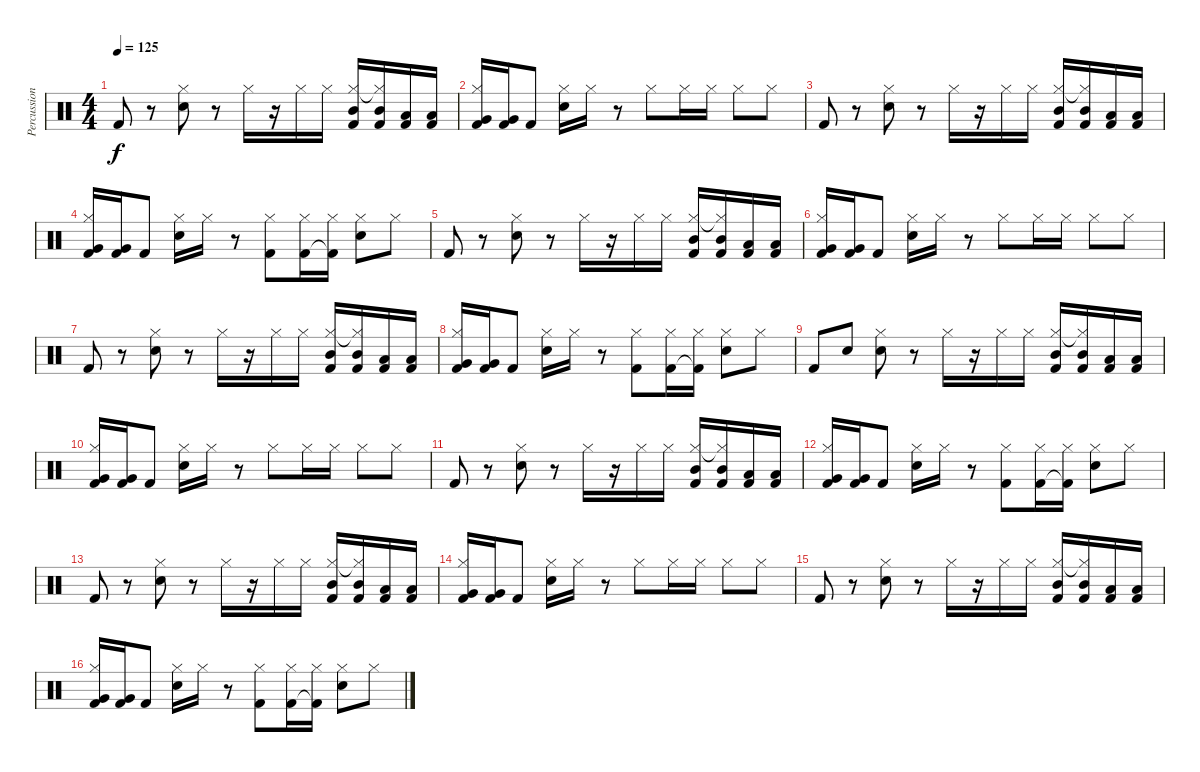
\track ("Percussion" "Percussion") {instrument percussion}
\staff {score}
\articulation defaults
\ts (4 4)
\tempo 125
\clef neutral
\ks c "Kick (hit) 2".8{dy f}
r.8 ("Hi-Hat (closed)" "Electric Snare (hit)").8 r.8 "Hi-Hat (closed)".16 r.16 "Hi-Hat (closed)".16 "Hi-Hat (closed)".16 ("Hi-Hat (closed)" "Mid Tom (hit)" "Kick (hit) 2").16 ("Hi-Hat (closed)"{t} "Mid Tom (hit)" "Kick (hit) 2").16 ("Low Tom (hit)" "Kick (hit) 2").16 ("Low Tom (hit)" "Kick (hit) 2").16 |
("Hi-Hat (closed)" "Very Low Tom (hit)" "Kick (hit) 2").16 ("Very Low Tom (hit)" "Kick (hit) 2").16 "Kick (hit) 2".8 ("Hi-Hat (closed)" "Electric Snare (hit)").16 "Hi-Hat (closed)".16 r.8 "Hi-Hat (closed)".8 "Hi-Hat (closed)".16 "Hi-Hat (closed)".16 "Hi-Hat (closed)".8 "Hi-Hat (closed)".8 |
"Kick (hit) 2".8 r.8 ("Hi-Hat (closed)" "Electric Snare (hit)").8 r.8 "Hi-Hat (closed)".16 r.16 "Hi-Hat (closed)".16 "Hi-Hat (closed)".16 ("Hi-Hat (closed)" "Mid Tom (hit)" "Kick (hit) 2").16 ("Hi-Hat (closed)"{t} "Mid Tom (hit)" "Kick (hit) 2").16 ("Low Tom (hit)" "Kick (hit) 2").16 ("Low Tom (hit)" "Kick (hit) 2").16 |
("Hi-Hat (closed)" "Very Low Tom (hit)" "Kick (hit) 2").16 ("Very Low Tom (hit)" "Kick (hit) 2").16 "Kick (hit) 2".8 ("Hi-Hat (closed)" "Electric Snare (hit)").16 "Hi-Hat (closed)".16 r.8 ("Hi-Hat (closed)" "Kick (hit) 2").8 ("Hi-Hat (closed)" "Kick (hit) 2").16 ("Hi-Hat (closed)" "Kick (hit) 2"{t}).16 ("Hi-Hat (closed)" "Electric Snare (hit)").8 "Hi-Hat (closed)".8 |
"Kick (hit) 2".8 r.8 ("Hi-Hat (closed)" "Electric Snare (hit)").8 r.8 "Hi-Hat (closed)".16 r.16 "Hi-Hat (closed)".16 "Hi-Hat (closed)".16 ("Hi-Hat (closed)" "Mid Tom (hit)" "Kick (hit) 2").16 ("Hi-Hat (closed)"{t} "Mid Tom (hit)" "Kick (hit) 2").16 ("Low Tom (hit)" "Kick (hit) 2").16 ("Low Tom (hit)" "Kick (hit) 2").16 |
("Hi-Hat (closed)" "Very Low Tom (hit)" "Kick (hit) 2").16 ("Very Low Tom (hit)" "Kick (hit) 2").16 "Kick (hit) 2".8 ("Hi-Hat (closed)" "Electric Snare (hit)").16 "Hi-Hat (closed)".16 r.8 "Hi-Hat (closed)".8 "Hi-Hat (closed)".16 "Hi-Hat (closed)".16 "Hi-Hat (closed)".8 "Hi-Hat (closed)".8 |
"Kick (hit) 2".8 r.8 ("Hi-Hat (closed)" "Electric Snare (hit)").8 r.8 "Hi-Hat (closed)".16 r.16 "Hi-Hat (closed)".16 "Hi-Hat (closed)".16 ("Hi-Hat (closed)" "Mid Tom (hit)" "Kick (hit) 2").16 ("Hi-Hat (closed)"{t} "Mid Tom (hit)" "Kick (hit) 2").16 ("Low Tom (hit)" "Kick (hit) 2").16 ("Low Tom (hit)" "Kick (hit) 2").16 |
("Hi-Hat (closed)" "Very Low Tom (hit)" "Kick (hit) 2").16 ("Very Low Tom (hit)" "Kick (hit) 2").16 "Kick (hit) 2".8 ("Hi-Hat (closed)" "Electric Snare (hit)").16 "Hi-Hat (closed)".16 r.8 ("Hi-Hat (closed)" "Kick (hit) 2").8 ("Hi-Hat (closed)" "Kick (hit) 2").16 ("Hi-Hat (closed)" "Kick (hit) 2"{t}).16 ("Hi-Hat (closed)" "Electric Snare (hit)").8 "Hi-Hat (closed)".8 |
"Kick (hit) 2".8 "Electric Snare (hit)".8 ("Hi-Hat (closed)" "Electric Snare (hit)").8 r.8 "Hi-Hat (closed)".16 r.16 "Hi-Hat (closed)".16 "Hi-Hat (closed)".16 ("Hi-Hat (closed)" "Mid Tom (hit)" "Kick (hit) 2").16 ("Hi-Hat (closed)"{t} "Mid Tom (hit)" "Kick (hit) 2").16 ("Low Tom (hit)" "Kick (hit) 2").16 ("Low Tom (hit)" "Kick (hit) 2").16 |
("Hi-Hat (closed)" "Very Low Tom (hit)" "Kick (hit) 2").16 ("Very Low Tom (hit)" "Kick (hit) 2").16 "Kick (hit) 2".8 ("Hi-Hat (closed)" "Electric Snare (hit)").16 "Hi-Hat (closed)".16 r.8 "Hi-Hat (closed)".8 "Hi-Hat (closed)".16 "Hi-Hat (closed)".16 "Hi-Hat (closed)".8 "Hi-Hat (closed)".8 |
"Kick (hit) 2".8 r.8 ("Hi-Hat (closed)" "Electric Snare (hit)").8 r.8 "Hi-Hat (closed)".16 r.16 "Hi-Hat (closed)".16 "Hi-Hat (closed)".16 ("Hi-Hat (closed)" "Mid Tom (hit)" "Kick (hit) 2").16 ("Hi-Hat (closed)"{t} "Mid Tom (hit)" "Kick (hit) 2").16 ("Low Tom (hit)" "Kick (hit) 2").16 ("Low Tom (hit)" "Kick (hit) 2").16 |
("Hi-Hat (closed)" "Very Low Tom (hit)" "Kick (hit) 2").16 ("Very Low Tom (hit)" "Kick (hit) 2").16 "Kick (hit) 2".8 ("Hi-Hat (closed)" "Electric Snare (hit)").16 "Hi-Hat (closed)".16 r.8 ("Hi-Hat (closed)" "Kick (hit) 2").8 ("Hi-Hat (closed)" "Kick (hit) 2").16 ("Hi-Hat (closed)" "Kick (hit) 2"{t}).16 ("Hi-Hat (closed)" "Electric Snare (hit)").8 "Hi-Hat (closed)".8 |
"Kick (hit) 2".8 r.8 ("Hi-Hat (closed)" "Electric Snare (hit)").8 r.8 "Hi-Hat (closed)".16 r.16 "Hi-Hat (closed)".16 "Hi-Hat (closed)".16 ("Hi-Hat (closed)" "Mid Tom (hit)" "Kick (hit) 2").16 ("Hi-Hat (closed)"{t} "Mid Tom (hit)" "Kick (hit) 2").16 ("Low Tom (hit)" "Kick (hit) 2").16 ("Low Tom (hit)" "Kick (hit) 2").16 |
("Hi-Hat (closed)" "Very Low Tom (hit)" "Kick (hit) 2").16 ("Very Low Tom (hit)" "Kick (hit) 2").16 "Kick (hit) 2".8 ("Hi-Hat (closed)" "Electric Snare (hit)").16 "Hi-Hat (closed)".16 r.8 "Hi-Hat (closed)".8 "Hi-Hat (closed)".16 "Hi-Hat (closed)".16 "Hi-Hat (closed)".8 "Hi-Hat (closed)".8 |
"Kick (hit) 2".8 r.8 ("Hi-Hat (closed)" "Electric Snare (hit)").8 r.8 "Hi-Hat (closed)".16 r.16 "Hi-Hat (closed)".16 "Hi-Hat (closed)".16 ("Hi-Hat (closed)" "Mid Tom (hit)" "Kick (hit) 2").16 ("Hi-Hat (closed)"{t} "Mid Tom (hit)" "Kick (hit) 2").16 ("Low Tom (hit)" "Kick (hit) 2").16 ("Low Tom (hit)" "Kick (hit) 2").16 |
("Hi-Hat (closed)" "Very Low Tom (hit)" "Kick (hit) 2").16 ("Very Low Tom (hit)" "Kick (hit) 2").16 "Kick (hit) 2".8 ("Hi-Hat (closed)" "Electric Snare (hit)").16 "Hi-Hat (closed)".16 r.8 ("Hi-Hat (closed)" "Kick (hit) 2").8 ("Hi-Hat (closed)" "Kick (hit) 2").16 ("Hi-Hat (closed)" "Kick (hit) 2"{t}).16 ("Hi-Hat (closed)" "Electric Snare (hit)").8 "Hi-Hat (closed)".8
